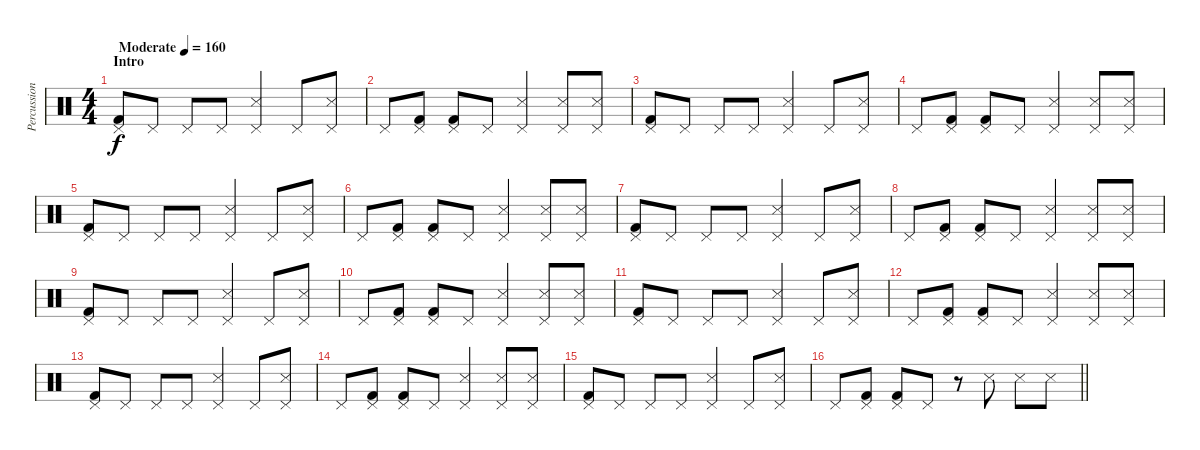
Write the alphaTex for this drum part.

\track ("Percussions" "Percussion") {instrument percussion}
\staff {score}
\articulation defaults
\ts (4 4)
\section ("" "Intro")
\tempo (160 "Moderate")
\clef neutral
\ks c
("Pedal Hi-Hat (hit)" "Kick (hit) 2").8{dy f} "Pedal Hi-Hat (hit)".8 "Pedal Hi-Hat (hit)".8 "Pedal Hi-Hat (hit)".8 ("Pedal Hi-Hat (hit)" "Snare (side stick) 3").4 "Pedal Hi-Hat (hit)".8 ("Pedal Hi-Hat (hit)" "Snare (side stick) 3").8 |
"Pedal Hi-Hat (hit)".8 ("Pedal Hi-Hat (hit)" "Kick (hit) 2").8 ("Pedal Hi-Hat (hit)" "Kick (hit) 2").8 "Pedal Hi-Hat (hit)".8 ("Pedal Hi-Hat (hit)" "Snare (side stick) 3").4 ("Pedal Hi-Hat (hit)" "Snare (side stick) 3").8 ("Pedal Hi-Hat (hit)" "Snare (side stick) 3").8 |
("Pedal Hi-Hat (hit)" "Kick (hit) 2").8 "Pedal Hi-Hat (hit)".8 "Pedal Hi-Hat (hit)".8 "Pedal Hi-Hat (hit)".8 ("Pedal Hi-Hat (hit)" "Snare (side stick) 3").4 "Pedal Hi-Hat (hit)".8 ("Pedal Hi-Hat (hit)" "Snare (side stick) 3").8 |
"Pedal Hi-Hat (hit)".8 ("Pedal Hi-Hat (hit)" "Kick (hit) 2").8 ("Pedal Hi-Hat (hit)" "Kick (hit) 2").8 "Pedal Hi-Hat (hit)".8 ("Pedal Hi-Hat (hit)" "Snare (side stick) 3").4 ("Pedal Hi-Hat (hit)" "Snare (side stick) 3").8 ("Pedal Hi-Hat (hit)" "Snare (side stick) 3").8 |
("Pedal Hi-Hat (hit)" "Kick (hit) 2").8 "Pedal Hi-Hat (hit)".8 "Pedal Hi-Hat (hit)".8 "Pedal Hi-Hat (hit)".8 ("Pedal Hi-Hat (hit)" "Snare (side stick) 3").4 "Pedal Hi-Hat (hit)".8 ("Pedal Hi-Hat (hit)" "Snare (side stick) 3").8 |
"Pedal Hi-Hat (hit)".8 ("Pedal Hi-Hat (hit)" "Kick (hit) 2").8 ("Pedal Hi-Hat (hit)" "Kick (hit) 2").8 "Pedal Hi-Hat (hit)".8 ("Pedal Hi-Hat (hit)" "Snare (side stick) 3").4 ("Pedal Hi-Hat (hit)" "Snare (side stick) 3").8 ("Pedal Hi-Hat (hit)" "Snare (side stick) 3").8 |
("Pedal Hi-Hat (hit)" "Kick (hit) 2").8 "Pedal Hi-Hat (hit)".8 "Pedal Hi-Hat (hit)".8 "Pedal Hi-Hat (hit)".8 ("Pedal Hi-Hat (hit)" "Snare (side stick) 3").4 "Pedal Hi-Hat (hit)".8 ("Pedal Hi-Hat (hit)" "Snare (side stick) 3").8 |
"Pedal Hi-Hat (hit)".8 ("Pedal Hi-Hat (hit)" "Kick (hit) 2").8 ("Pedal Hi-Hat (hit)" "Kick (hit) 2").8 "Pedal Hi-Hat (hit)".8 ("Pedal Hi-Hat (hit)" "Snare (side stick) 3").4 ("Pedal Hi-Hat (hit)" "Snare (side stick) 3").8 ("Pedal Hi-Hat (hit)" "Snare (side stick) 3").8 |
("Pedal Hi-Hat (hit)" "Kick (hit) 2").8 "Pedal Hi-Hat (hit)".8 "Pedal Hi-Hat (hit)".8 "Pedal Hi-Hat (hit)".8 ("Pedal Hi-Hat (hit)" "Snare (side stick) 3").4 "Pedal Hi-Hat (hit)".8 ("Pedal Hi-Hat (hit)" "Snare (side stick) 3").8 |
"Pedal Hi-Hat (hit)".8 ("Pedal Hi-Hat (hit)" "Kick (hit) 2").8 ("Pedal Hi-Hat (hit)" "Kick (hit) 2").8 "Pedal Hi-Hat (hit)".8 ("Pedal Hi-Hat (hit)" "Snare (side stick) 3").4 ("Pedal Hi-Hat (hit)" "Snare (side stick) 3").8 ("Pedal Hi-Hat (hit)" "Snare (side stick) 3").8 |
("Pedal Hi-Hat (hit)" "Kick (hit) 2").8 "Pedal Hi-Hat (hit)".8 "Pedal Hi-Hat (hit)".8 "Pedal Hi-Hat (hit)".8 ("Pedal Hi-Hat (hit)" "Snare (side stick) 3").4 "Pedal Hi-Hat (hit)".8 ("Pedal Hi-Hat (hit)" "Snare (side stick) 3").8 |
"Pedal Hi-Hat (hit)".8 ("Pedal Hi-Hat (hit)" "Kick (hit) 2").8 ("Pedal Hi-Hat (hit)" "Kick (hit) 2").8 "Pedal Hi-Hat (hit)".8 ("Pedal Hi-Hat (hit)" "Snare (side stick) 3").4 ("Pedal Hi-Hat (hit)" "Snare (side stick) 3").8 ("Pedal Hi-Hat (hit)" "Snare (side stick) 3").8 |
("Pedal Hi-Hat (hit)" "Kick (hit) 2").8 "Pedal Hi-Hat (hit)".8 "Pedal Hi-Hat (hit)".8 "Pedal Hi-Hat (hit)".8 ("Pedal Hi-Hat (hit)" "Snare (side stick) 3").4 "Pedal Hi-Hat (hit)".8 ("Pedal Hi-Hat (hit)" "Snare (side stick) 3").8 |
"Pedal Hi-Hat (hit)".8 ("Pedal Hi-Hat (hit)" "Kick (hit) 2").8 ("Pedal Hi-Hat (hit)" "Kick (hit) 2").8 "Pedal Hi-Hat (hit)".8 ("Pedal Hi-Hat (hit)" "Snare (side stick) 3").4 ("Pedal Hi-Hat (hit)" "Snare (side stick) 3").8 ("Pedal Hi-Hat (hit)" "Snare (side stick) 3").8 |
("Pedal Hi-Hat (hit)" "Kick (hit) 2").8 "Pedal Hi-Hat (hit)".8 "Pedal Hi-Hat (hit)".8 "Pedal Hi-Hat (hit)".8 ("Pedal Hi-Hat (hit)" "Snare (side stick) 3").4 "Pedal Hi-Hat (hit)".8 ("Pedal Hi-Hat (hit)" "Snare (side stick) 3").8 |
\barLineRight lightlight "Pedal Hi-Hat (hit)".8
("Pedal Hi-Hat (hit)" "Kick (hit) 2").8 ("Pedal Hi-Hat (hit)" "Kick (hit) 2").8 "Pedal Hi-Hat (hit)".8 r.8 "Snare (side stick) 3".8 "Snare (side stick) 3".8 "Snare (side stick) 3".8
